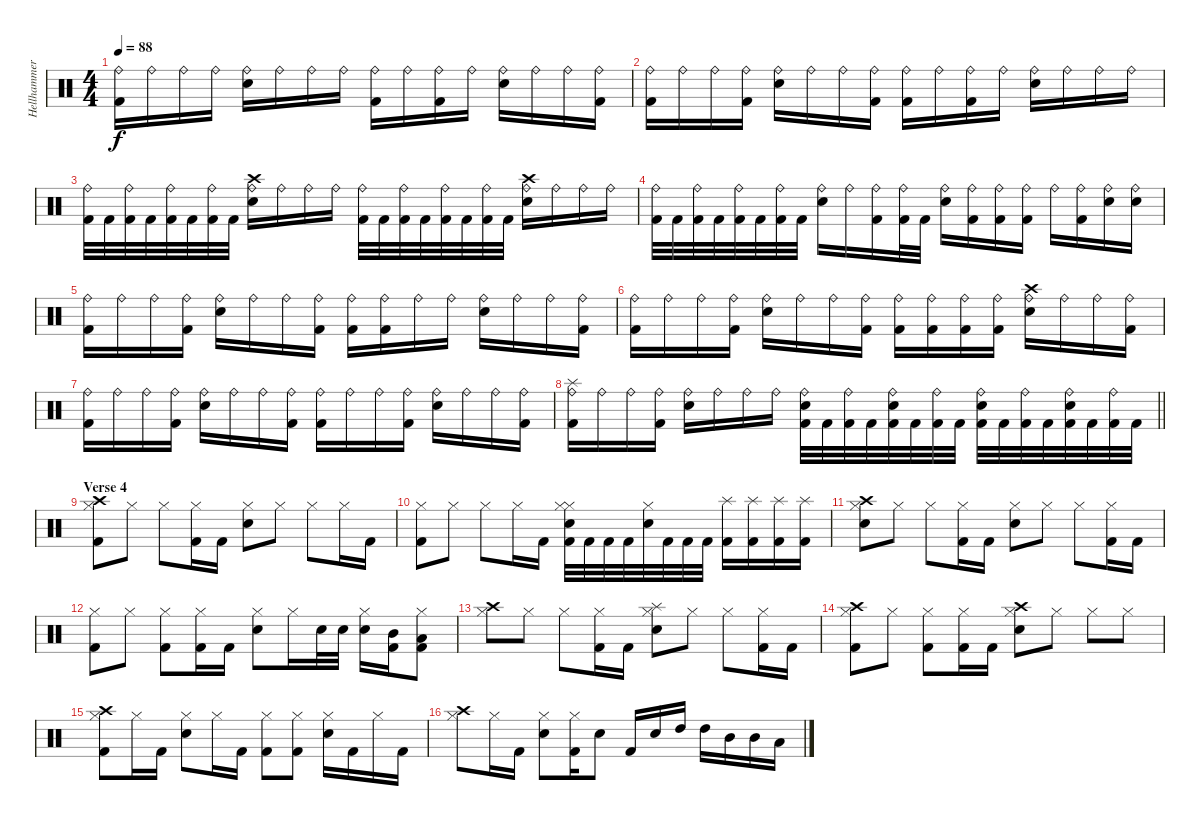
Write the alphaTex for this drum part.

\track ("Hellhammer" "Hellhammer") {instrument percussion}
\staff {score}
\articulation defaults
\ts (4 4)
\tempo 88
\clef neutral
\ks c
("Ride (bell)" "Kick (hit) 2").16{dy f} "Ride (bell)".16 "Ride (bell)".16 "Ride (bell)".16 ("Ride (bell)" "Snare (hit) 2").16 "Ride (bell)".16 "Ride (bell)".16 "Ride (bell)".16 ("Ride (bell)" "Kick (hit) 2").16 "Ride (bell)".16 ("Ride (bell)" "Kick (hit) 2").16 "Ride (bell)".16 ("Ride (bell)" "Snare (hit) 2").16 "Ride (bell)".16 "Ride (bell)".16 ("Ride (bell)" "Kick (hit) 2").16 |
("Ride (bell)" "Kick (hit) 2").16 "Ride (bell)".16 "Ride (bell)".16 ("Ride (bell)" "Kick (hit) 2").16 ("Ride (bell)" "Snare (hit) 2").16 "Ride (bell)".16 "Ride (bell)".16 ("Ride (bell)" "Kick (hit) 2").16 ("Ride (bell)" "Kick (hit) 2").16 "Ride (bell)".16 ("Ride (bell)" "Kick (hit) 2").16 "Ride (bell)".16 ("Ride (bell)" "Snare (hit) 2").16 "Ride (bell)".16 "Ride (bell)".16 "Ride (bell)".16 |
("Ride (bell)" "Kick (hit) 2").32 "Kick (hit) 2".32 ("Ride (bell)" "Kick (hit) 2").32 "Kick (hit) 2".32 ("Ride (bell)" "Kick (hit) 2").32 "Kick (hit) 2".32 ("Ride (bell)" "Kick (hit) 2").32 "Kick (hit) 2".32 ("Ride (bell)" "Crash high (hit)" "Snare (hit) 2").16 "Ride (bell)".16 "Ride (bell)".16 "Ride (bell)".16 ("Ride (bell)" "Kick (hit) 2").32 "Kick (hit) 2".32 ("Ride (bell)" "Kick (hit) 2").32 "Kick (hit) 2".32 ("Ride (bell)" "Kick (hit) 2").32 "Kick (hit) 2".32 ("Ride (bell)" "Kick (hit) 2").32 "Kick (hit) 2".32 ("Ride (bell)" "Crash high (hit)" "Snare (hit) 2").16 "Ride (bell)".16 "Ride (bell)".16 "Ride (bell)".16 |
("Ride (bell)" "Kick (hit) 2").32 "Kick (hit) 2".32 ("Ride (bell)" "Kick (hit) 2").32 "Kick (hit) 2".32 ("Ride (bell)" "Kick (hit) 2").32 "Kick (hit) 2".32 ("Ride (bell)" "Kick (hit) 2").32 "Kick (hit) 2".32 ("Ride (bell)" "Snare (hit) 2").16 "Ride (bell)".16 ("Ride (bell)" "Kick (hit) 2").16 ("Ride (bell)" "Kick (hit) 2").32 "Kick (hit) 2".32 ("Ride (bell)" "Snare (hit) 2").16 ("Ride (bell)" "Kick (hit) 2").16 ("Ride (bell)" "Kick (hit) 2").16 ("Ride (bell)" "Kick (hit) 2").16 "Ride (bell)".16 ("Ride (bell)" "Kick (hit) 2").16 ("Ride (bell)" "Snare (hit) 2").16 ("Ride (bell)" "Snare (hit) 2").16 |
("Ride (bell)" "Kick (hit) 2").16 "Ride (bell)".16 "Ride (bell)".16 ("Ride (bell)" "Kick (hit) 2").16 ("Ride (bell)" "Snare (hit) 2").16 "Ride (bell)".16 "Ride (bell)".16 ("Ride (bell)" "Kick (hit) 2").16 ("Ride (bell)" "Kick (hit) 2").16 ("Ride (bell)" "Kick (hit) 2").16 "Ride (bell)".16 "Ride (bell)".16 ("Ride (bell)" "Snare (hit) 2").16 "Ride (bell)".16 "Ride (bell)".16 ("Ride (bell)" "Kick (hit) 2").16 |
("Ride (bell)" "Kick (hit) 2").16 "Ride (bell)".16 "Ride (bell)".16 ("Ride (bell)" "Kick (hit) 2").16 ("Ride (bell)" "Snare (hit) 2").16 "Ride (bell)".16 "Ride (bell)".16 ("Ride (bell)" "Kick (hit) 2").16 ("Ride (bell)" "Kick (hit) 2").16 ("Ride (bell)" "Kick (hit) 2").16 ("Ride (bell)" "Kick (hit) 2").16 ("Ride (bell)" "Kick (hit) 2").16 ("Ride (bell)" "Crash high (hit)" "Snare (hit) 2").16 "Ride (bell)".16 "Ride (bell)".16 ("Ride (bell)" "Kick (hit) 2").16 |
("Ride (bell)" "Kick (hit) 2").16 "Ride (bell)".16 "Ride (bell)".16 ("Ride (bell)" "Kick (hit) 2").16 ("Ride (bell)" "Snare (hit) 2").16 "Ride (bell)".16 "Ride (bell)".16 ("Ride (bell)" "Kick (hit) 2").16 ("Ride (bell)" "Kick (hit) 2").16 "Ride (bell)".16 "Ride (bell)".16 ("Ride (bell)" "Kick (hit) 2").16 ("Ride (bell)" "Snare (hit) 2").16 "Ride (bell)".16 "Ride (bell)".16 ("Ride (bell)" "Kick (hit) 2").16 |
\barLineRight lightlight
("Ride (bell)" "Splash (hit)" "Kick (hit) 2").16 "Ride (bell)".16 "Ride (bell)".16 ("Ride (bell)" "Kick (hit) 2").16 ("Ride (bell)" "Snare (hit) 2").16 "Ride (bell)".16 "Ride (bell)".16 "Ride (bell)".16 ("Ride (bell)" "Snare (hit) 2" "Kick (hit) 2").32 "Kick (hit) 2".32 ("Ride (bell)" "Kick (hit) 2").32 "Kick (hit) 2".32 ("Ride (bell)" "Snare (hit) 2" "Kick (hit) 2").32 "Kick (hit) 2".32 ("Ride (bell)" "Kick (hit) 2").32 "Kick (hit) 2".32 ("Ride (bell)" "Snare (hit) 2" "Kick (hit) 2").32 "Kick (hit) 2".32 ("Ride (bell)" "Kick (hit) 2").32 "Kick (hit) 2".32 ("Ride (bell)" "Snare (hit) 2" "Kick (hit) 2").32 "Kick (hit) 2".32 ("Ride (bell)" "Kick (hit) 2").32 "Kick (hit) 2".32 |
\section ("" "Verse 4")
("Crash high (hit)" "Hi-Hat (closed)" "Kick (hit) 2").8 "Hi-Hat (closed)".8 "Hi-Hat (closed)".8 ("Hi-Hat (closed)" "Kick (hit) 2").16 "Kick (hit) 2".16 ("Hi-Hat (closed)" "Snare (hit) 2").8 "Hi-Hat (closed)".8 "Hi-Hat (closed)".8 "Hi-Hat (closed)".16 "Kick (hit) 2".16 |
("Hi-Hat (closed)" "Kick (hit) 2").8 "Hi-Hat (closed)".8 "Hi-Hat (closed)".8 "Hi-Hat (closed)".16 "Kick (hit) 2".16 ("Hi-Hat (closed)" "Kick (hit) 2" "Hi-Hat (closed)" "Snare (hit) 2").32 "Kick (hit) 2".32 "Kick (hit) 2".32 "Kick (hit) 2".32 ("Hi-Hat (closed)" "Snare (hit) 2").32 "Kick (hit) 2".32 "Kick (hit) 2".32 "Kick (hit) 2".32 ("Splash (hit)" "Kick (hit) 2").16 ("Splash (hit)" "Kick (hit) 2").16 ("Splash (hit)" "Kick (hit) 2").16 ("Splash (hit)" "Kick (hit) 2").16 |
("Crash high (hit)" "Hi-Hat (closed)" "Snare (hit) 2").8 "Hi-Hat (closed)".8 "Hi-Hat (closed)".8 ("Hi-Hat (closed)" "Kick (hit) 2").16 "Kick (hit) 2".16 ("Hi-Hat (closed)" "Snare (hit) 2").8 "Hi-Hat (closed)".8 "Hi-Hat (closed)".8 ("Hi-Hat (closed)" "Kick (hit) 2").16 "Kick (hit) 2".16 |
("Hi-Hat (closed)" "Kick (hit) 2").8 "Hi-Hat (closed)".8 ("Hi-Hat (closed)" "Kick (hit) 2").8 ("Hi-Hat (closed)" "Kick (hit) 2").16 "Kick (hit) 2".16 ("Hi-Hat (closed)" "Snare (hit) 2").8 "Hi-Hat (closed)".16 "Snare (hit) 2".32 "Snare (hit) 2".32 ("Hi-Hat (closed)" "Snare (hit) 2").16 ("Kick (hit) 2" "Mid Tom (hit)").16 ("Hi-Hat (closed)" "Kick (hit) 2" "Low Tom (hit)").8 |
("Crash high (hit)" "Hi-Hat (closed)").8 "Hi-Hat (closed)".8 "Hi-Hat (closed)".8 ("Hi-Hat (closed)" "Kick (hit) 2").16 "Kick (hit) 2".16 ("Hi-Hat (closed)" "Splash (hit)" "Snare (hit) 2").8 "Hi-Hat (closed)".8 "Hi-Hat (closed)".8 ("Hi-Hat (closed)" "Kick (hit) 2").16 "Kick (hit) 2".16 |
("Hi-Hat (closed)" "Crash high (hit)" "Kick (hit) 2").8 "Hi-Hat (closed)".8 ("Hi-Hat (closed)" "Kick (hit) 2").8 ("Hi-Hat (closed)" "Kick (hit) 2").16 "Kick (hit) 2".16 ("Hi-Hat (closed)" "Crash high (hit)" "Snare (hit) 2").8 "Hi-Hat (closed)".8 "Hi-Hat (closed)".8 "Hi-Hat (closed)".8 |
("Hi-Hat (closed)" "Crash high (hit)" "Kick (hit) 2").8 "Hi-Hat (closed)".16 "Kick (hit) 2".16 ("Hi-Hat (closed)" "Snare (hit) 2").8 "Hi-Hat (closed)".16 "Kick (hit) 2".16 ("Hi-Hat (closed)" "Kick (hit) 2").8 ("Hi-Hat (closed)" "Kick (hit) 2").8 ("Hi-Hat (closed)" "Snare (hit) 2").16 "Kick (hit) 2".16 "Hi-Hat (closed)".16 "Kick (hit) 2".16 |
("Hi-Hat (closed)" "Crash high (hit)").8 "Hi-Hat (closed)".16 "Kick (hit) 2".16 ("Hi-Hat (closed)" "Snare (hit) 2").8 ("Hi-Hat (closed)" "Kick (hit) 2").16 "Snare (hit) 2".8 "Kick (hit) 2".16 "Snare (hit) 2".16 "High Tom (hit)".16 "High Tom (hit)".16 "Mid Tom (hit)".16 "Mid Tom (hit)".16 "Low Tom (hit)".16
